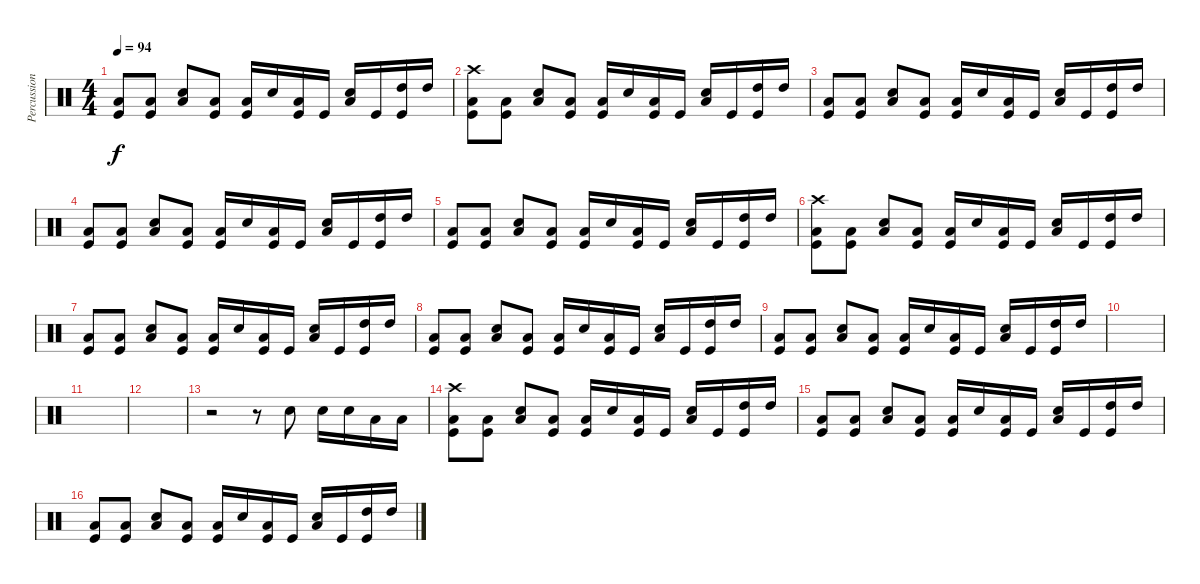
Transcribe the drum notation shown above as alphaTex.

\track ("Percussions" "Percussion") {instrument percussion}
\staff {score}
\articulation defaults
\ts (4 4)
\tempo 94
\clef neutral
\ks c
("Kick (hit)" "Low Floor Tom (hit)").8{dy f} ("Kick (hit)" "Low Floor Tom (hit)").8 ("Electric Snare (hit)" "Low Floor Tom (hit)").8 ("Kick (hit)" "Low Floor Tom (hit)").8 ("Kick (hit)" "Low Floor Tom (hit)").16 "Electric Snare (hit)".16 ("Kick (hit)" "Low Floor Tom (hit)").16 "Kick (hit)".16 ("Electric Snare (hit)" "Low Floor Tom (hit)").16 "Kick (hit)".16 ("High Tom (hit)" "Kick (hit)").16 "High Tom (hit)".16 |
("Crash high (hit)" "Kick (hit)" "Low Floor Tom (hit)").8 ("Kick (hit)" "Low Floor Tom (hit)").8 ("Electric Snare (hit)" "Low Floor Tom (hit)").8 ("Kick (hit)" "Low Floor Tom (hit)").8 ("Kick (hit)" "Low Floor Tom (hit)").16 "Electric Snare (hit)".16 ("Kick (hit)" "Low Floor Tom (hit)").16 "Kick (hit)".16 ("Electric Snare (hit)" "Low Floor Tom (hit)").16 "Kick (hit)".16 ("High Tom (hit)" "Kick (hit)").16 "High Tom (hit)".16 |
("Kick (hit)" "Low Floor Tom (hit)").8 ("Kick (hit)" "Low Floor Tom (hit)").8 ("Electric Snare (hit)" "Low Floor Tom (hit)").8 ("Kick (hit)" "Low Floor Tom (hit)").8 ("Kick (hit)" "Low Floor Tom (hit)").16 "Electric Snare (hit)".16 ("Kick (hit)" "Low Floor Tom (hit)").16 "Kick (hit)".16 ("Electric Snare (hit)" "Low Floor Tom (hit)").16 "Kick (hit)".16 ("High Tom (hit)" "Kick (hit)").16 "High Tom (hit)".16 |
("Kick (hit)" "Low Floor Tom (hit)").8 ("Kick (hit)" "Low Floor Tom (hit)").8 ("Electric Snare (hit)" "Low Floor Tom (hit)").8 ("Kick (hit)" "Low Floor Tom (hit)").8 ("Kick (hit)" "Low Floor Tom (hit)").16 "Electric Snare (hit)".16 ("Kick (hit)" "Low Floor Tom (hit)").16 "Kick (hit)".16 ("Electric Snare (hit)" "Low Floor Tom (hit)").16 "Kick (hit)".16 ("High Tom (hit)" "Kick (hit)").16 "High Tom (hit)".16 |
("Kick (hit)" "Low Floor Tom (hit)").8 ("Kick (hit)" "Low Floor Tom (hit)").8 ("Electric Snare (hit)" "Low Floor Tom (hit)").8 ("Kick (hit)" "Low Floor Tom (hit)").8 ("Kick (hit)" "Low Floor Tom (hit)").16 "Electric Snare (hit)".16 ("Kick (hit)" "Low Floor Tom (hit)").16 "Kick (hit)".16 ("Electric Snare (hit)" "Low Floor Tom (hit)").16 "Kick (hit)".16 ("High Tom (hit)" "Kick (hit)").16 "High Tom (hit)".16 |
("Crash high (hit)" "Kick (hit)" "Low Floor Tom (hit)").8 ("Kick (hit)" "Low Floor Tom (hit)").8 ("Electric Snare (hit)" "Low Floor Tom (hit)").8 ("Kick (hit)" "Low Floor Tom (hit)").8 ("Kick (hit)" "Low Floor Tom (hit)").16 "Electric Snare (hit)".16 ("Kick (hit)" "Low Floor Tom (hit)").16 "Kick (hit)".16 ("Electric Snare (hit)" "Low Floor Tom (hit)").16 "Kick (hit)".16 ("High Tom (hit)" "Kick (hit)").16 "High Tom (hit)".16 |
("Kick (hit)" "Low Floor Tom (hit)").8 ("Kick (hit)" "Low Floor Tom (hit)").8 ("Electric Snare (hit)" "Low Floor Tom (hit)").8 ("Kick (hit)" "Low Floor Tom (hit)").8 ("Kick (hit)" "Low Floor Tom (hit)").16 "Electric Snare (hit)".16 ("Kick (hit)" "Low Floor Tom (hit)").16 "Kick (hit)".16 ("Electric Snare (hit)" "Low Floor Tom (hit)").16 "Kick (hit)".16 ("High Tom (hit)" "Kick (hit)").16 "High Tom (hit)".16 |
("Kick (hit)" "Low Floor Tom (hit)").8 ("Kick (hit)" "Low Floor Tom (hit)").8 ("Electric Snare (hit)" "Low Floor Tom (hit)").8 ("Kick (hit)" "Low Floor Tom (hit)").8 ("Kick (hit)" "Low Floor Tom (hit)").16 "Electric Snare (hit)".16 ("Kick (hit)" "Low Floor Tom (hit)").16 "Kick (hit)".16 ("Electric Snare (hit)" "Low Floor Tom (hit)").16 "Kick (hit)".16 ("High Tom (hit)" "Kick (hit)").16 "High Tom (hit)".16 |
("Kick (hit)" "Low Floor Tom (hit)").8 ("Kick (hit)" "Low Floor Tom (hit)").8 ("Electric Snare (hit)" "Low Floor Tom (hit)").8 ("Kick (hit)" "Low Floor Tom (hit)").8 ("Kick (hit)" "Low Floor Tom (hit)").16 "Electric Snare (hit)".16 ("Kick (hit)" "Low Floor Tom (hit)").16 "Kick (hit)".16 ("Electric Snare (hit)" "Low Floor Tom (hit)").16 "Kick (hit)".16 ("High Tom (hit)" "Kick (hit)").16 "High Tom (hit)".16 |
|
|
|
r.2 r.8 "Electric Snare (hit)".8 "Electric Snare (hit)".16 "Electric Snare (hit)".16 "Low Tom (hit)".16 "Low Tom (hit)".16 |
("Crash high (hit)" "Kick (hit)" "Low Floor Tom (hit)").8 ("Kick (hit)" "Low Floor Tom (hit)").8 ("Electric Snare (hit)" "Low Floor Tom (hit)").8 ("Kick (hit)" "Low Floor Tom (hit)").8 ("Kick (hit)" "Low Floor Tom (hit)").16 "Electric Snare (hit)".16 ("Kick (hit)" "Low Floor Tom (hit)").16 "Kick (hit)".16 ("Electric Snare (hit)" "Low Floor Tom (hit)").16 "Kick (hit)".16 ("High Tom (hit)" "Kick (hit)").16 "High Tom (hit)".16 |
("Kick (hit)" "Low Floor Tom (hit)").8 ("Kick (hit)" "Low Floor Tom (hit)").8 ("Electric Snare (hit)" "Low Floor Tom (hit)").8 ("Kick (hit)" "Low Floor Tom (hit)").8 ("Kick (hit)" "Low Floor Tom (hit)").16 "Electric Snare (hit)".16 ("Kick (hit)" "Low Floor Tom (hit)").16 "Kick (hit)".16 ("Electric Snare (hit)" "Low Floor Tom (hit)").16 "Kick (hit)".16 ("High Tom (hit)" "Kick (hit)").16 "High Tom (hit)".16 |
("Kick (hit)" "Low Floor Tom (hit)").8 ("Kick (hit)" "Low Floor Tom (hit)").8 ("Electric Snare (hit)" "Low Floor Tom (hit)").8 ("Kick (hit)" "Low Floor Tom (hit)").8 ("Kick (hit)" "Low Floor Tom (hit)").16 "Electric Snare (hit)".16 ("Kick (hit)" "Low Floor Tom (hit)").16 "Kick (hit)".16 ("Electric Snare (hit)" "Low Floor Tom (hit)").16 "Kick (hit)".16 ("High Tom (hit)" "Kick (hit)").16 "High Tom (hit)".16
